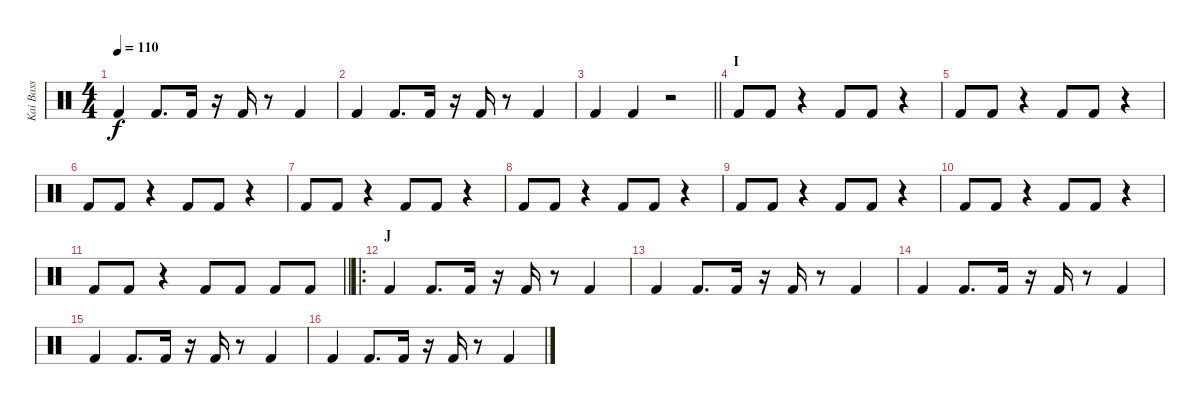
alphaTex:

\track ("Kai Bass" "Kai Bass") {instrument percussion}
\staff {score}
\articulation defaults
\ts (4 4)
\tempo 110
\clef neutral
\ks c "Kick (hit) 2".4{dy f} "Kick (hit) 2".8{d} "Kick (hit) 2".16
r.16 "Kick (hit) 2".16 r.8 "Kick (hit) 2".4 |
"Kick (hit) 2".4 "Kick (hit) 2".8{d} "Kick (hit) 2".16 r.16 "Kick (hit) 2".16 r.8 "Kick (hit) 2".4 |
\barLineRight lightlight "Kick (hit) 2".4 "Kick (hit) 2".4
r.2 |
\section ("" "I")
"Kick (hit) 2".8 "Kick (hit) 2".8 r.4 "Kick (hit) 2".8 "Kick (hit) 2".8 r.4 |
"Kick (hit) 2".8 "Kick (hit) 2".8 r.4 "Kick (hit) 2".8 "Kick (hit) 2".8 r.4 |
"Kick (hit) 2".8 "Kick (hit) 2".8 r.4 "Kick (hit) 2".8 "Kick (hit) 2".8 r.4 |
"Kick (hit) 2".8 "Kick (hit) 2".8 r.4 "Kick (hit) 2".8 "Kick (hit) 2".8 r.4 |
"Kick (hit) 2".8 "Kick (hit) 2".8 r.4 "Kick (hit) 2".8 "Kick (hit) 2".8 r.4 |
"Kick (hit) 2".8 "Kick (hit) 2".8 r.4 "Kick (hit) 2".8 "Kick (hit) 2".8 r.4 |
"Kick (hit) 2".8 "Kick (hit) 2".8 r.4 "Kick (hit) 2".8 "Kick (hit) 2".8 r.4 |
\barLineRight lightlight "Kick (hit) 2".8 "Kick (hit) 2".8
r.4 "Kick (hit) 2".8 "Kick (hit) 2".8 "Kick (hit) 2".8 "Kick (hit) 2".8 |
\ro
\section ("" "J")
"Kick (hit) 2".4 "Kick (hit) 2".8{d} "Kick (hit) 2".16 r.16 "Kick (hit) 2".16 r.8 "Kick (hit) 2".4 |
"Kick (hit) 2".4 "Kick (hit) 2".8{d} "Kick (hit) 2".16 r.16 "Kick (hit) 2".16 r.8 "Kick (hit) 2".4 |
"Kick (hit) 2".4 "Kick (hit) 2".8{d} "Kick (hit) 2".16 r.16 "Kick (hit) 2".16 r.8 "Kick (hit) 2".4 |
"Kick (hit) 2".4 "Kick (hit) 2".8{d} "Kick (hit) 2".16 r.16 "Kick (hit) 2".16 r.8 "Kick (hit) 2".4 |
"Kick (hit) 2".4 "Kick (hit) 2".8{d} "Kick (hit) 2".16 r.16 "Kick (hit) 2".16 r.8 "Kick (hit) 2".4
